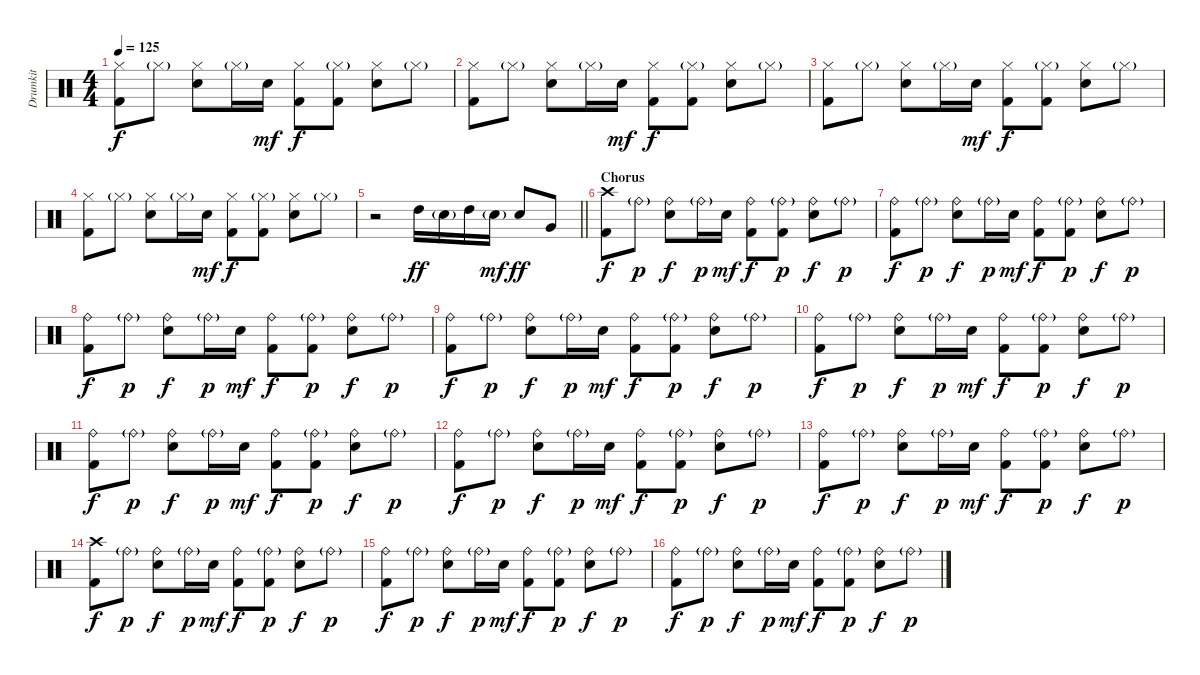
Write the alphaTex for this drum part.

\track ("Drumkit" "Drumkit") {instrument percussion}
\staff {score}
\articulation defaults
\ts (4 4)
\tempo 125
\clef neutral
\ks c
("Hi-Hat (closed)" "Kick (hit) 2").8{dy f} "Hi-Hat (closed)"{g}.8 ("Hi-Hat (closed)" "Snare (hit) 2").8 "Hi-Hat (closed)"{g}.16 "Snare (hit) 2".16{dy mf} ("Hi-Hat (closed)" "Kick (hit) 2").8{dy f} ("Hi-Hat (closed)"{g} "Kick (hit) 2").8 ("Hi-Hat (closed)" "Snare (hit) 2").8 "Hi-Hat (closed)"{g}.8 |
("Hi-Hat (closed)" "Kick (hit) 2").8 "Hi-Hat (closed)"{g}.8 ("Hi-Hat (closed)" "Snare (hit) 2").8 "Hi-Hat (closed)"{g}.16 "Snare (hit) 2".16{dy mf} ("Hi-Hat (closed)" "Kick (hit) 2").8{dy f} ("Hi-Hat (closed)"{g} "Kick (hit) 2").8 ("Hi-Hat (closed)" "Snare (hit) 2").8 "Hi-Hat (closed)"{g}.8 |
("Hi-Hat (closed)" "Kick (hit) 2").8 "Hi-Hat (closed)"{g}.8 ("Hi-Hat (closed)" "Snare (hit) 2").8 "Hi-Hat (closed)"{g}.16 "Snare (hit) 2".16{dy mf} ("Hi-Hat (closed)" "Kick (hit) 2").8{dy f} ("Hi-Hat (closed)"{g} "Kick (hit) 2").8 ("Hi-Hat (closed)" "Snare (hit) 2").8 "Hi-Hat (closed)"{g}.8 |
("Hi-Hat (closed)" "Kick (hit) 2").8 "Hi-Hat (closed)"{g}.8 ("Hi-Hat (closed)" "Snare (hit) 2").8 "Hi-Hat (closed)"{g}.16 "Snare (hit) 2".16{dy mf} ("Hi-Hat (closed)" "Kick (hit) 2").8{dy f} ("Hi-Hat (closed)"{g} "Kick (hit) 2").8 ("Hi-Hat (closed)" "Snare (hit) 2").8 "Hi-Hat (closed)"{g}.8 |
\barLineRight lightlight
r.2 "High Tom (hit)".16{dy ff} "Snare (hit) 2"{g}.16 "High Tom (hit)".16 "Snare (hit) 2"{g}.16{dy mf} "Snare (hit) 2".8{dy ff} "Very Low Tom (hit)".8 |
\section ("" "Chorus")
("Crash high (hit)" "Kick (hit) 2").8{dy f} "Ride (bell)"{g}.8{dy p} ("Ride (bell)" "Snare (hit) 2").8{dy f} "Ride (bell)"{g}.16{dy p} "Snare (hit) 2".16{dy mf} ("Ride (bell)" "Kick (hit) 2").8{dy f} ("Ride (bell)"{g} "Kick (hit) 2").8{dy p} ("Ride (bell)" "Snare (hit) 2").8{dy f} "Ride (bell)"{g}.8{dy p} |
("Ride (bell)" "Kick (hit) 2").8{dy f} "Ride (bell)"{g}.8{dy p} ("Ride (bell)" "Snare (hit) 2").8{dy f} "Ride (bell)"{g}.16{dy p} "Snare (hit) 2".16{dy mf} ("Ride (bell)" "Kick (hit) 2").8{dy f} ("Ride (bell)"{g} "Kick (hit) 2").8{dy p} ("Ride (bell)" "Snare (hit) 2").8{dy f} "Ride (bell)"{g}.8{dy p} |
("Ride (bell)" "Kick (hit) 2").8{dy f} "Ride (bell)"{g}.8{dy p} ("Ride (bell)" "Snare (hit) 2").8{dy f} "Ride (bell)"{g}.16{dy p} "Snare (hit) 2".16{dy mf} ("Ride (bell)" "Kick (hit) 2").8{dy f} ("Ride (bell)"{g} "Kick (hit) 2").8{dy p} ("Ride (bell)" "Snare (hit) 2").8{dy f} "Ride (bell)"{g}.8{dy p} |
("Ride (bell)" "Kick (hit) 2").8{dy f} "Ride (bell)"{g}.8{dy p} ("Ride (bell)" "Snare (hit) 2").8{dy f} "Ride (bell)"{g}.16{dy p} "Snare (hit) 2".16{dy mf} ("Ride (bell)" "Kick (hit) 2").8{dy f} ("Ride (bell)"{g} "Kick (hit) 2").8{dy p} ("Ride (bell)" "Snare (hit) 2").8{dy f} "Ride (bell)"{g}.8{dy p} |
("Ride (bell)" "Kick (hit) 2").8{dy f} "Ride (bell)"{g}.8{dy p} ("Ride (bell)" "Snare (hit) 2").8{dy f} "Ride (bell)"{g}.16{dy p} "Snare (hit) 2".16{dy mf} ("Ride (bell)" "Kick (hit) 2").8{dy f} ("Ride (bell)"{g} "Kick (hit) 2").8{dy p} ("Ride (bell)" "Snare (hit) 2").8{dy f} "Ride (bell)"{g}.8{dy p} |
("Ride (bell)" "Kick (hit) 2").8{dy f} "Ride (bell)"{g}.8{dy p} ("Ride (bell)" "Snare (hit) 2").8{dy f} "Ride (bell)"{g}.16{dy p} "Snare (hit) 2".16{dy mf} ("Ride (bell)" "Kick (hit) 2").8{dy f} ("Ride (bell)"{g} "Kick (hit) 2").8{dy p} ("Ride (bell)" "Snare (hit) 2").8{dy f} "Ride (bell)"{g}.8{dy p} |
("Ride (bell)" "Kick (hit) 2").8{dy f} "Ride (bell)"{g}.8{dy p} ("Ride (bell)" "Snare (hit) 2").8{dy f} "Ride (bell)"{g}.16{dy p} "Snare (hit) 2".16{dy mf} ("Ride (bell)" "Kick (hit) 2").8{dy f} ("Ride (bell)"{g} "Kick (hit) 2").8{dy p} ("Ride (bell)" "Snare (hit) 2").8{dy f} "Ride (bell)"{g}.8{dy p} |
("Ride (bell)" "Kick (hit) 2").8{dy f} "Ride (bell)"{g}.8{dy p} ("Ride (bell)" "Snare (hit) 2").8{dy f} "Ride (bell)"{g}.16{dy p} "Snare (hit) 2".16{dy mf} ("Ride (bell)" "Kick (hit) 2").8{dy f} ("Ride (bell)"{g} "Kick (hit) 2").8{dy p} ("Ride (bell)" "Snare (hit) 2").8{dy f} "Ride (bell)"{g}.8{dy p} |
("Crash high (hit)" "Kick (hit) 2").8{dy f} "Ride (bell)"{g}.8{dy p} ("Ride (bell)" "Snare (hit) 2").8{dy f} "Ride (bell)"{g}.16{dy p} "Snare (hit) 2".16{dy mf} ("Ride (bell)" "Kick (hit) 2").8{dy f} ("Ride (bell)"{g} "Kick (hit) 2").8{dy p} ("Ride (bell)" "Snare (hit) 2").8{dy f} "Ride (bell)"{g}.8{dy p} |
("Ride (bell)" "Kick (hit) 2").8{dy f} "Ride (bell)"{g}.8{dy p} ("Ride (bell)" "Snare (hit) 2").8{dy f} "Ride (bell)"{g}.16{dy p} "Snare (hit) 2".16{dy mf} ("Ride (bell)" "Kick (hit) 2").8{dy f} ("Ride (bell)"{g} "Kick (hit) 2").8{dy p} ("Ride (bell)" "Snare (hit) 2").8{dy f} "Ride (bell)"{g}.8{dy p} |
("Ride (bell)" "Kick (hit) 2").8{dy f} "Ride (bell)"{g}.8{dy p} ("Ride (bell)" "Snare (hit) 2").8{dy f} "Ride (bell)"{g}.16{dy p} "Snare (hit) 2".16{dy mf} ("Ride (bell)" "Kick (hit) 2").8{dy f} ("Ride (bell)"{g} "Kick (hit) 2").8{dy p} ("Ride (bell)" "Snare (hit) 2").8{dy f} "Ride (bell)"{g}.8{dy p}
